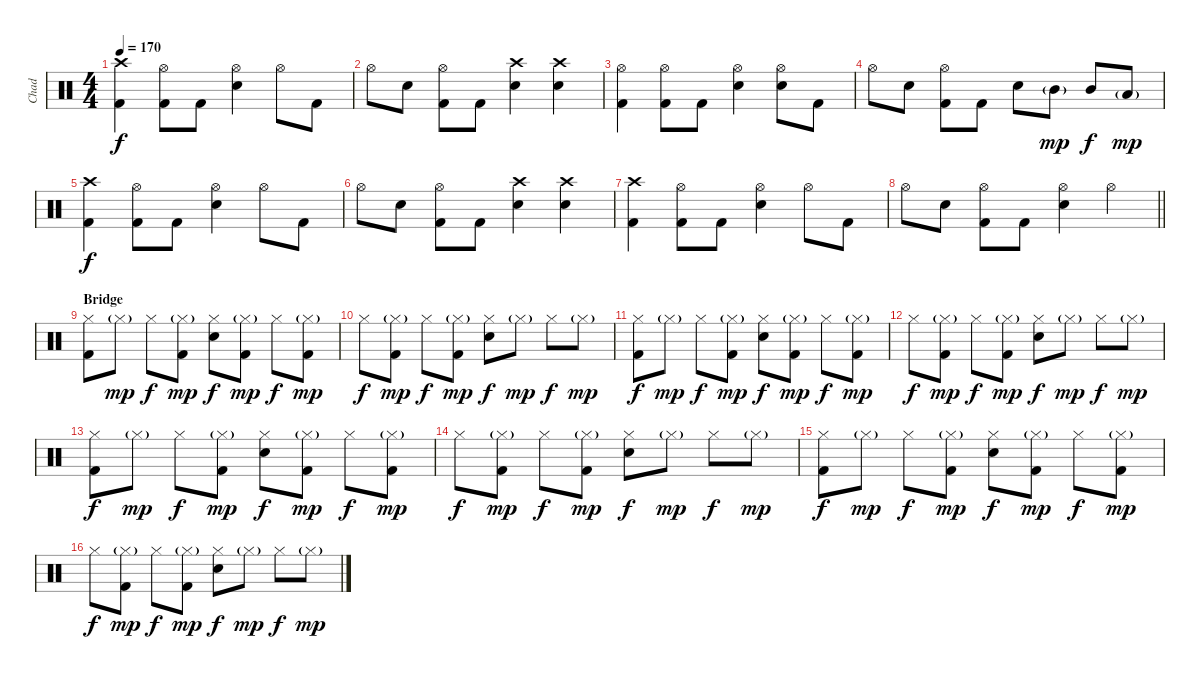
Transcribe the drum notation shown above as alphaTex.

\track ("Chad" "Chad") {instrument percussion}
\staff {score}
\articulation defaults
\ts (4 4)
\tempo 170
\clef neutral
\ks c
("Crash high (hit)" "Kick (hit) 2").4{dy f} ("Hi-Hat (open)" "Kick (hit) 2").8 "Kick (hit) 2".8 ("Hi-Hat (open)" "Snare (hit) 2").4 "Hi-Hat (open)".8 "Kick (hit) 2".8 |
"Hi-Hat (open)".8 "Snare (hit) 2".8 ("Hi-Hat (open)" "Kick (hit) 2").8 "Kick (hit) 2".8 ("Crash high (hit)" "Snare (hit) 2").4 ("Crash high (hit)" "Snare (hit) 2").4 |
("Hi-Hat (open)" "Kick (hit) 2").4 ("Hi-Hat (open)" "Kick (hit) 2").8 "Kick (hit) 2".8 ("Hi-Hat (open)" "Snare (hit) 2").4 ("Hi-Hat (open)" "Snare (hit) 2").8 "Kick (hit) 2".8 |
"Hi-Hat (open)".8 "Snare (hit) 2".8 ("Hi-Hat (open)" "Kick (hit) 2").8 "Kick (hit) 2".8 "Snare (hit) 2".8 "Mid Tom (hit)"{g}.8{dy mp} "Mid Tom (hit)".8{dy f} "Low Tom (hit)"{g}.8{dy mp} |
("Crash high (hit)" "Kick (hit) 2").4{dy f} ("Hi-Hat (open)" "Kick (hit) 2").8 "Kick (hit) 2".8 ("Hi-Hat (open)" "Snare (hit) 2").4 "Hi-Hat (open)".8 "Kick (hit) 2".8 |
"Hi-Hat (open)".8 "Snare (hit) 2".8 ("Hi-Hat (open)" "Kick (hit) 2").8 "Kick (hit) 2".8 ("Crash high (hit)" "Snare (hit) 2").4 ("Crash high (hit)" "Snare (hit) 2").4 |
("Crash high (hit)" "Kick (hit) 2").4 ("Hi-Hat (open)" "Kick (hit) 2").8 "Kick (hit) 2".8 ("Hi-Hat (open)" "Snare (hit) 2").4 "Hi-Hat (open)".8 "Kick (hit) 2".8 |
\barLineRight lightlight "Hi-Hat (open)".8 "Snare (hit) 2".8
("Hi-Hat (open)" "Kick (hit) 2").8 "Kick (hit) 2".8 ("Hi-Hat (open)" "Snare (hit) 2").4 "Hi-Hat (open)".4 |
\section ("" "Bridge")
("Hi-Hat (closed)" "Kick (hit) 2").8 "Hi-Hat (closed)"{g}.8{dy mp} "Hi-Hat (closed)".8{dy f} ("Hi-Hat (closed)"{g} "Kick (hit) 2").8{dy mp} ("Hi-Hat (closed)" "Snare (hit) 2").8{dy f} ("Hi-Hat (closed)"{g} "Kick (hit) 2").8{dy mp} "Hi-Hat (closed)".8{dy f} ("Hi-Hat (closed)"{g} "Kick (hit) 2").8{dy mp} |
"Hi-Hat (closed)".8{dy f} ("Hi-Hat (closed)"{g} "Kick (hit) 2").8{dy mp} "Hi-Hat (closed)".8{dy f} ("Hi-Hat (closed)"{g} "Kick (hit) 2").8{dy mp} ("Hi-Hat (closed)" "Snare (hit) 2").8{dy f} "Hi-Hat (closed)"{g}.8{dy mp} "Hi-Hat (closed)".8{dy f} "Hi-Hat (closed)"{g}.8{dy mp} |
("Hi-Hat (closed)" "Kick (hit) 2").8{dy f} "Hi-Hat (closed)"{g}.8{dy mp} "Hi-Hat (closed)".8{dy f} ("Hi-Hat (closed)"{g} "Kick (hit) 2").8{dy mp} ("Hi-Hat (closed)" "Snare (hit) 2").8{dy f} ("Hi-Hat (closed)"{g} "Kick (hit) 2").8{dy mp} "Hi-Hat (closed)".8{dy f} ("Hi-Hat (closed)"{g} "Kick (hit) 2").8{dy mp} |
"Hi-Hat (closed)".8{dy f} ("Hi-Hat (closed)"{g} "Kick (hit) 2").8{dy mp} "Hi-Hat (closed)".8{dy f} ("Hi-Hat (closed)"{g} "Kick (hit) 2").8{dy mp} ("Hi-Hat (closed)" "Snare (hit) 2").8{dy f} "Hi-Hat (closed)"{g}.8{dy mp} "Hi-Hat (closed)".8{dy f} "Hi-Hat (closed)"{g}.8{dy mp} |
("Hi-Hat (closed)" "Kick (hit) 2").8{dy f} "Hi-Hat (closed)"{g}.8{dy mp} "Hi-Hat (closed)".8{dy f} ("Hi-Hat (closed)"{g} "Kick (hit) 2").8{dy mp} ("Hi-Hat (closed)" "Snare (hit) 2").8{dy f} ("Hi-Hat (closed)"{g} "Kick (hit) 2").8{dy mp} "Hi-Hat (closed)".8{dy f} ("Hi-Hat (closed)"{g} "Kick (hit) 2").8{dy mp} |
"Hi-Hat (closed)".8{dy f} ("Hi-Hat (closed)"{g} "Kick (hit) 2").8{dy mp} "Hi-Hat (closed)".8{dy f} ("Hi-Hat (closed)"{g} "Kick (hit) 2").8{dy mp} ("Hi-Hat (closed)" "Snare (hit) 2").8{dy f} "Hi-Hat (closed)"{g}.8{dy mp} "Hi-Hat (closed)".8{dy f} "Hi-Hat (closed)"{g}.8{dy mp} |
("Hi-Hat (closed)" "Kick (hit) 2").8{dy f} "Hi-Hat (closed)"{g}.8{dy mp} "Hi-Hat (closed)".8{dy f} ("Hi-Hat (closed)"{g} "Kick (hit) 2").8{dy mp} ("Hi-Hat (closed)" "Snare (hit) 2").8{dy f} ("Hi-Hat (closed)"{g} "Kick (hit) 2").8{dy mp} "Hi-Hat (closed)".8{dy f} ("Hi-Hat (closed)"{g} "Kick (hit) 2").8{dy mp} |
"Hi-Hat (closed)".8{dy f} ("Hi-Hat (closed)"{g} "Kick (hit) 2").8{dy mp} "Hi-Hat (closed)".8{dy f} ("Hi-Hat (closed)"{g} "Kick (hit) 2").8{dy mp} ("Hi-Hat (closed)" "Snare (hit) 2").8{dy f} "Hi-Hat (closed)"{g}.8{dy mp} "Hi-Hat (closed)".8{dy f} "Hi-Hat (closed)"{g}.8{dy mp}
